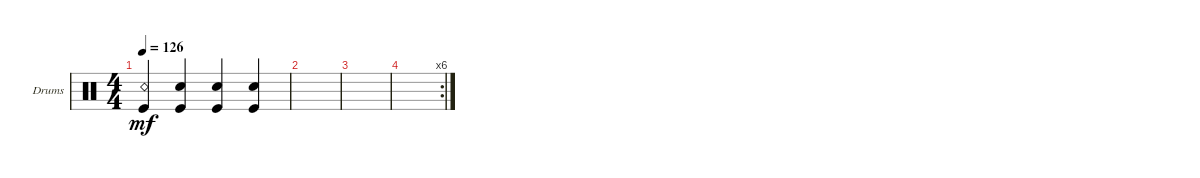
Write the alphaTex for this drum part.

\defaultSystemsLayout 4
\bracketExtendMode groupsimilarinstruments
\firstSystemTrackNameOrientation horizontal
\otherSystemsTrackNameOrientation horizontal
\track ("Drumkit" "Drums") {instrument percussion}
\staff {score}
\articulation defaults
\ts (4 4)
\tempo 126
\clef neutral
\ks c
("Kick (hit)" "Snare (rim shot)").4{dy mf} ("Kick (hit)" "Snare (hit) 2").4 ("Kick (hit)" "Snare (hit) 2").4 ("Kick (hit)" "Snare (hit) 2").4 |
|
|
\rc 6
